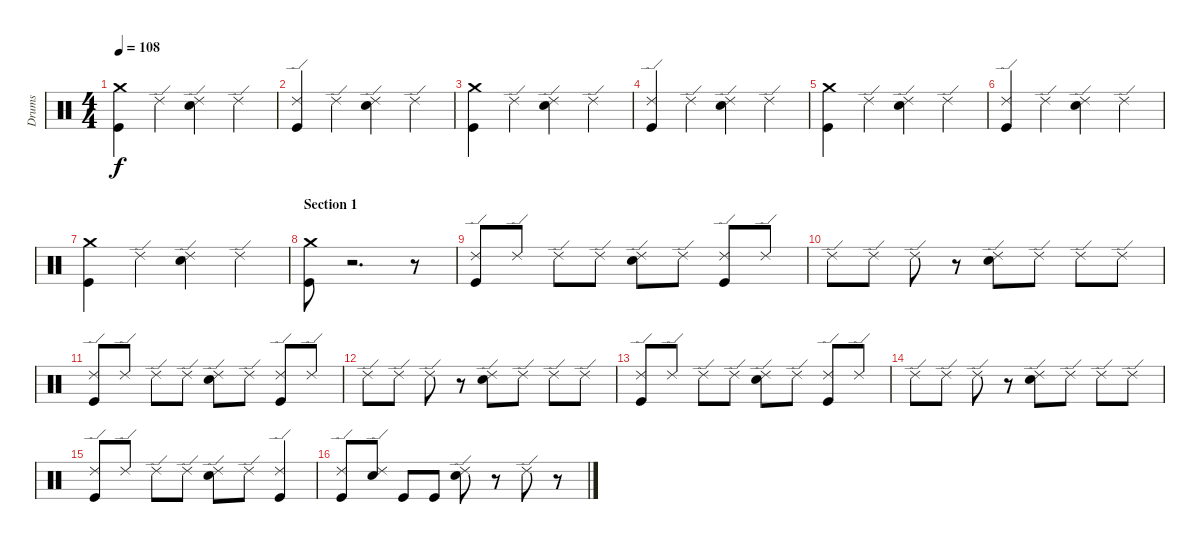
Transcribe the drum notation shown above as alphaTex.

\track ("Drums" "Drums") {instrument percussion}
\staff {score}
\articulation defaults
\ts (4 4)
\tempo 108
\clef neutral
\ks c
("Crash medium (hit)" "Kick (hit)").4{dy f} "Ride (edge) 2".4 ("Snare (hit) 2" "Ride (edge) 2").4 "Ride (edge) 2".4 |
("Ride (edge) 2" "Kick (hit)").4 "Ride (edge) 2".4 ("Ride (edge) 2" "Snare (hit) 2").4 "Ride (edge) 2".4 |
("Crash medium (hit)" "Kick (hit)").4 "Ride (edge) 2".4 ("Snare (hit) 2" "Ride (edge) 2").4 "Ride (edge) 2".4 |
("Ride (edge) 2" "Kick (hit)").4 "Ride (edge) 2".4 ("Ride (edge) 2" "Snare (hit) 2").4 "Ride (edge) 2".4 |
("Crash medium (hit)" "Kick (hit)").4 "Ride (edge) 2".4 ("Snare (hit) 2" "Ride (edge) 2").4 "Ride (edge) 2".4 |
("Ride (edge) 2" "Kick (hit)").4 "Ride (edge) 2".4 ("Ride (edge) 2" "Snare (hit) 2").4 "Ride (edge) 2".4 |
("Crash medium (hit)" "Kick (hit)").4 "Ride (edge) 2".4 ("Ride (edge) 2" "Snare (hit) 2").4 "Ride (edge) 2".4 |
\section ("" "Section 1")
("Crash medium (hit)" "Kick (hit)").8 r.2{d} r.8 |
("Ride (edge) 2" "Kick (hit)").8 "Ride (edge) 2".8 "Ride (edge) 2".8 "Ride (edge) 2".8 ("Ride (edge) 2" "Snare (hit) 2").8 "Ride (edge) 2".8 ("Ride (edge) 2" "Kick (hit)").8 "Ride (edge) 2".8 |
"Ride (edge) 2".8 "Ride (edge) 2".8 "Ride (edge) 2".8 r.8 ("Snare (hit) 2" "Ride (edge) 2").8 "Ride (edge) 2".8 "Ride (edge) 2".8 "Ride (edge) 2".8 |
("Ride (edge) 2" "Kick (hit)").8 "Ride (edge) 2".8 "Ride (edge) 2".8 "Ride (edge) 2".8 ("Ride (edge) 2" "Snare (hit) 2").8 "Ride (edge) 2".8 ("Ride (edge) 2" "Kick (hit)").8 "Ride (edge) 2".8 |
"Ride (edge) 2".8 "Ride (edge) 2".8 "Ride (edge) 2".8 r.8 ("Snare (hit) 2" "Ride (edge) 2").8 "Ride (edge) 2".8 "Ride (edge) 2".8 "Ride (edge) 2".8 |
("Ride (edge) 2" "Kick (hit)").8 "Ride (edge) 2".8 "Ride (edge) 2".8 "Ride (edge) 2".8 ("Ride (edge) 2" "Snare (hit) 2").8 "Ride (edge) 2".8 ("Ride (edge) 2" "Kick (hit)").8 "Ride (edge) 2".8 |
"Ride (edge) 2".8 "Ride (edge) 2".8 "Ride (edge) 2".8 r.8 ("Snare (hit) 2" "Ride (edge) 2").8 "Ride (edge) 2".8 "Ride (edge) 2".8 "Ride (edge) 2".8 |
("Ride (edge) 2" "Kick (hit)").8 "Ride (edge) 2".8 "Ride (edge) 2".8 "Ride (edge) 2".8 ("Ride (edge) 2" "Snare (hit) 2").8 "Ride (edge) 2".8 ("Ride (edge) 2" "Kick (hit)").4 |
("Ride (edge) 2" "Kick (hit)").8 ("Ride (edge) 2" "Snare (hit) 2").8 "Kick (hit)".8 "Kick (hit)".8 ("Ride (edge) 2" "Snare (hit) 2").8 r.8 "Ride (edge) 2".8 r.8
